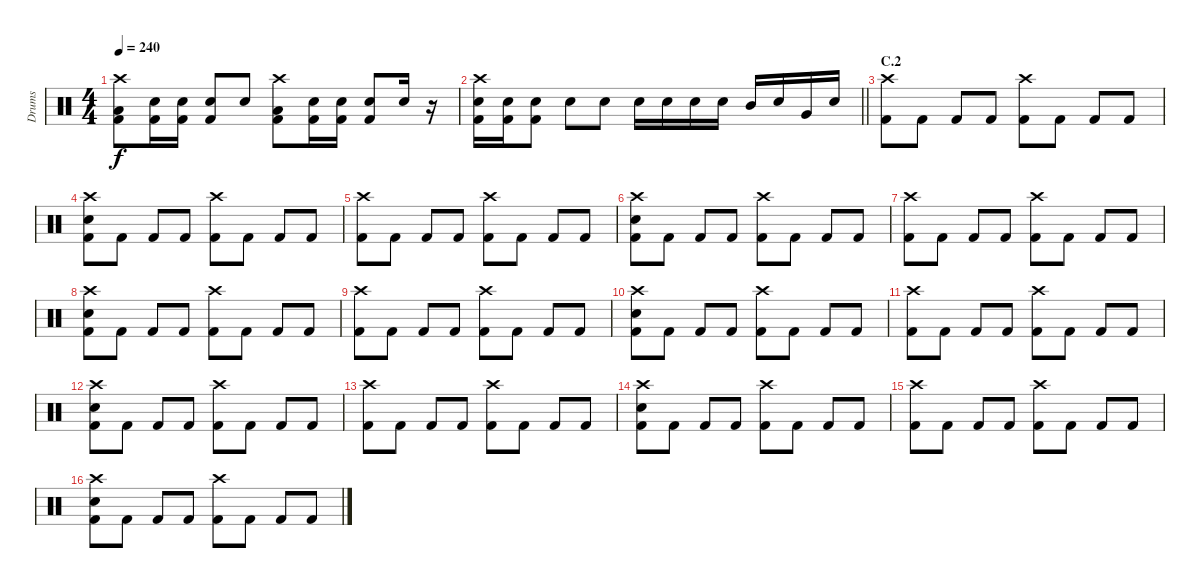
\track ("Drums" "Drums") {instrument percussion}
\staff {score}
\articulation defaults
\ts (4 4)
\tempo 240
\clef neutral
\ks c
("Crash high (hit)" "Low Floor Tom (hit)" "Kick (hit) 2").8{dy f} ("Electric Snare (hit)" "Kick (hit) 2").16 ("Electric Snare (hit)" "Kick (hit) 2").16 ("Electric Snare (hit)" "Kick (hit) 2").8 "Electric Snare (hit)".8 ("Crash high (hit)" "Low Floor Tom (hit)" "Kick (hit) 2").8 ("Electric Snare (hit)" "Kick (hit) 2").16 ("Electric Snare (hit)" "Kick (hit) 2").16 ("Electric Snare (hit)" "Kick (hit) 2").8 "Electric Snare (hit)".16 r.16 |
\barLineRight lightlight
("Crash high (hit)" "Electric Snare (hit)" "Kick (hit) 2").16 ("Electric Snare (hit)" "Kick (hit) 2").16 ("Electric Snare (hit)" "Kick (hit) 2").8 "Electric Snare (hit)".8 "Electric Snare (hit)".8 "Electric Snare (hit)".16 "Electric Snare (hit)".16 "Electric Snare (hit)".16 "Electric Snare (hit)".16 "Mid Tom (hit)".16 "Electric Snare (hit)".16 "Very Low Tom (hit)".16 "Electric Snare (hit)".16 |
\section ("" "C.2")
("Crash high (hit)" "Kick (hit) 2").8 "Kick (hit) 2".8 "Kick (hit) 2".8 "Kick (hit) 2".8 ("Crash high (hit)" "Kick (hit) 2").8 "Kick (hit) 2".8 "Kick (hit) 2".8 "Kick (hit) 2".8 |
("Crash high (hit)" "Electric Snare (hit)" "Kick (hit) 2").8 "Kick (hit) 2".8 "Kick (hit) 2".8 "Kick (hit) 2".8 ("Crash high (hit)" "Kick (hit) 2").8 "Kick (hit) 2".8 "Kick (hit) 2".8 "Kick (hit) 2".8 |
("Crash high (hit)" "Kick (hit) 2").8 "Kick (hit) 2".8 "Kick (hit) 2".8 "Kick (hit) 2".8 ("Crash high (hit)" "Kick (hit) 2").8 "Kick (hit) 2".8 "Kick (hit) 2".8 "Kick (hit) 2".8 |
("Crash high (hit)" "Electric Snare (hit)" "Kick (hit) 2").8 "Kick (hit) 2".8 "Kick (hit) 2".8 "Kick (hit) 2".8 ("Crash high (hit)" "Kick (hit) 2").8 "Kick (hit) 2".8 "Kick (hit) 2".8 "Kick (hit) 2".8 |
("Crash high (hit)" "Kick (hit) 2").8 "Kick (hit) 2".8 "Kick (hit) 2".8 "Kick (hit) 2".8 ("Crash high (hit)" "Kick (hit) 2").8 "Kick (hit) 2".8 "Kick (hit) 2".8 "Kick (hit) 2".8 |
("Crash high (hit)" "Electric Snare (hit)" "Kick (hit) 2").8 "Kick (hit) 2".8 "Kick (hit) 2".8 "Kick (hit) 2".8 ("Crash high (hit)" "Kick (hit) 2").8 "Kick (hit) 2".8 "Kick (hit) 2".8 "Kick (hit) 2".8 |
("Crash high (hit)" "Kick (hit) 2").8 "Kick (hit) 2".8 "Kick (hit) 2".8 "Kick (hit) 2".8 ("Crash high (hit)" "Kick (hit) 2").8 "Kick (hit) 2".8 "Kick (hit) 2".8 "Kick (hit) 2".8 |
("Crash high (hit)" "Electric Snare (hit)" "Kick (hit) 2").8 "Kick (hit) 2".8 "Kick (hit) 2".8 "Kick (hit) 2".8 ("Crash high (hit)" "Kick (hit) 2").8 "Kick (hit) 2".8 "Kick (hit) 2".8 "Kick (hit) 2".8 |
("Crash high (hit)" "Kick (hit) 2").8 "Kick (hit) 2".8 "Kick (hit) 2".8 "Kick (hit) 2".8 ("Crash high (hit)" "Kick (hit) 2").8 "Kick (hit) 2".8 "Kick (hit) 2".8 "Kick (hit) 2".8 |
("Crash high (hit)" "Electric Snare (hit)" "Kick (hit) 2").8 "Kick (hit) 2".8 "Kick (hit) 2".8 "Kick (hit) 2".8 ("Crash high (hit)" "Kick (hit) 2").8 "Kick (hit) 2".8 "Kick (hit) 2".8 "Kick (hit) 2".8 |
("Crash high (hit)" "Kick (hit) 2").8 "Kick (hit) 2".8 "Kick (hit) 2".8 "Kick (hit) 2".8 ("Crash high (hit)" "Kick (hit) 2").8 "Kick (hit) 2".8 "Kick (hit) 2".8 "Kick (hit) 2".8 |
("Crash high (hit)" "Electric Snare (hit)" "Kick (hit) 2").8 "Kick (hit) 2".8 "Kick (hit) 2".8 "Kick (hit) 2".8 ("Crash high (hit)" "Kick (hit) 2").8 "Kick (hit) 2".8 "Kick (hit) 2".8 "Kick (hit) 2".8 |
("Crash high (hit)" "Kick (hit) 2").8 "Kick (hit) 2".8 "Kick (hit) 2".8 "Kick (hit) 2".8 ("Crash high (hit)" "Kick (hit) 2").8 "Kick (hit) 2".8 "Kick (hit) 2".8 "Kick (hit) 2".8 |
("Crash high (hit)" "Electric Snare (hit)" "Kick (hit) 2").8 "Kick (hit) 2".8 "Kick (hit) 2".8 "Kick (hit) 2".8 ("Crash high (hit)" "Kick (hit) 2").8 "Kick (hit) 2".8 "Kick (hit) 2".8 "Kick (hit) 2".8
